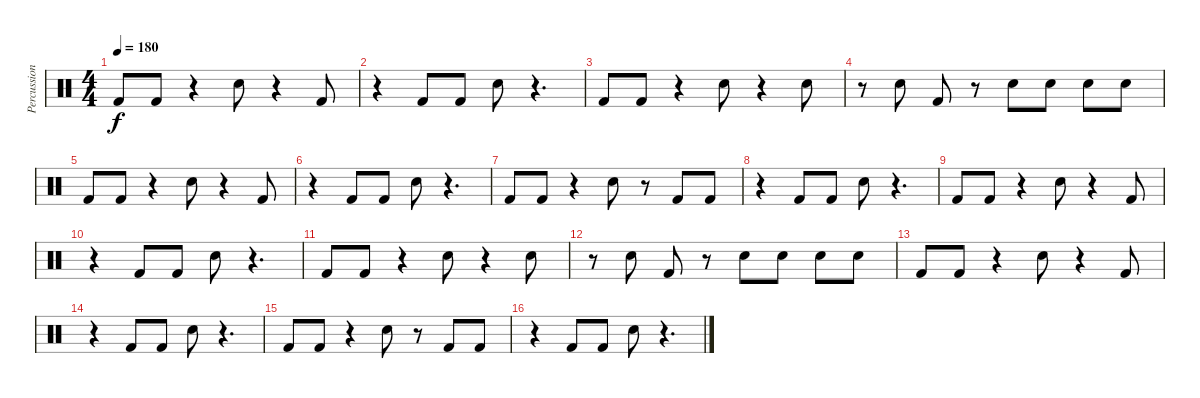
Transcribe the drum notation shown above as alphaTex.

\track ("Percussions" "Percussion") {instrument percussion}
\staff {score}
\articulation defaults
\ts (4 4)
\tempo 180
\clef neutral
\ks c "Kick (hit) 2".8{dy f} "Kick (hit) 2".8
r.4 "Snare (hit) 2".8 r.4 "Kick (hit) 2".8 |
r.4 "Kick (hit) 2".8 "Kick (hit) 2".8 "Snare (hit) 2".8 r.4{d} |
"Kick (hit) 2".8 "Kick (hit) 2".8 r.4 "Snare (hit) 2".8 r.4 "Snare (hit) 2".8 |
r.8 "Snare (hit) 2".8 "Kick (hit) 2".8 r.8 "Snare (hit) 2".8 "Snare (hit) 2".8 "Snare (hit) 2".8 "Snare (hit) 2".8 |
"Kick (hit) 2".8 "Kick (hit) 2".8 r.4 "Snare (hit) 2".8 r.4 "Kick (hit) 2".8 |
r.4 "Kick (hit) 2".8 "Kick (hit) 2".8 "Snare (hit) 2".8 r.4{d} |
"Kick (hit) 2".8 "Kick (hit) 2".8 r.4 "Snare (hit) 2".8 r.8 "Kick (hit) 2".8 "Kick (hit) 2".8 |
r.4 "Kick (hit) 2".8 "Kick (hit) 2".8 "Snare (hit) 2".8 r.4{d} |
"Kick (hit) 2".8 "Kick (hit) 2".8 r.4 "Snare (hit) 2".8 r.4 "Kick (hit) 2".8 |
r.4 "Kick (hit) 2".8 "Kick (hit) 2".8 "Snare (hit) 2".8 r.4{d} |
"Kick (hit) 2".8 "Kick (hit) 2".8 r.4 "Snare (hit) 2".8 r.4 "Snare (hit) 2".8 |
r.8 "Snare (hit) 2".8 "Kick (hit) 2".8 r.8 "Snare (hit) 2".8 "Snare (hit) 2".8 "Snare (hit) 2".8 "Snare (hit) 2".8 |
"Kick (hit) 2".8 "Kick (hit) 2".8 r.4 "Snare (hit) 2".8 r.4 "Kick (hit) 2".8 |
r.4 "Kick (hit) 2".8 "Kick (hit) 2".8 "Snare (hit) 2".8 r.4{d} |
"Kick (hit) 2".8 "Kick (hit) 2".8 r.4 "Snare (hit) 2".8 r.8 "Kick (hit) 2".8 "Kick (hit) 2".8 |
r.4 "Kick (hit) 2".8 "Kick (hit) 2".8 "Snare (hit) 2".8 r.4{d}
